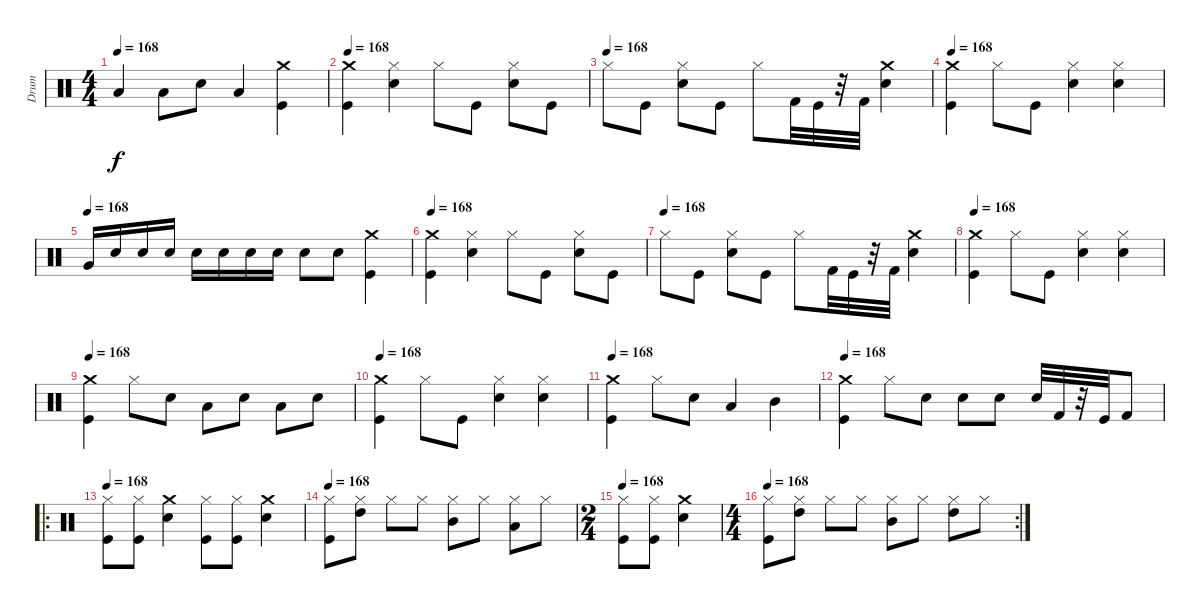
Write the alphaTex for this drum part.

\track ("Drum" "Drum") {instrument percussion}
\staff {score}
\articulation defaults
\ts (4 4)
\tempo 168
\clef neutral
\ks c "Low Tom (hit)".4{dy f} "Low Tom (hit)".8 "Snare (hit) 2".8 "Low Tom (hit)".4
("Crash medium (hit)" "Kick (hit)").4 |
\tempo 168
("Crash medium (hit)" "Kick (hit)").4 ("Hi-Hat (closed)" "Snare (hit) 2").4 "Hi-Hat (closed)".8 "Kick (hit)".8 ("Hi-Hat (closed)" "Snare (hit) 2").8 "Kick (hit)".8 |
\tempo (168)
"Hi-Hat (closed)".8 "Kick (hit)".8 ("Hi-Hat (closed)" "Snare (hit) 2").8 "Kick (hit)".8 "Hi-Hat (closed)".8 "Kick (hit) 2".32 "Kick (hit)".32 r.32 "Kick (hit) 2".32 ("Crash medium (hit)" "Snare (hit) 2").4 |
\tempo 168
("Crash medium (hit)" "Kick (hit)").4 "Hi-Hat (closed)".8 "Kick (hit)".8 ("Hi-Hat (closed)" "Snare (hit) 2").4 ("Hi-Hat (closed)" "Snare (hit) 2").4 |
\tempo (168)
"Very Low Tom (hit)".16 "Snare (hit) 2".16 "Snare (hit) 2".16 "Snare (hit) 2".16 "Snare (hit) 2".16 "Snare (hit) 2".16 "Snare (hit) 2".16 "Snare (hit) 2".16 "Snare (hit) 2".8 "Snare (hit) 2".8 ("Crash medium (hit)" "Kick (hit)").4 |
\tempo 168
("Crash medium (hit)" "Kick (hit)").4 ("Hi-Hat (closed)" "Snare (hit) 2").4 "Hi-Hat (closed)".8 "Kick (hit)".8 ("Hi-Hat (closed)" "Snare (hit) 2").8 "Kick (hit)".8 |
\tempo (168)
"Hi-Hat (closed)".8 "Kick (hit)".8 ("Hi-Hat (closed)" "Snare (hit) 2").8 "Kick (hit)".8 "Hi-Hat (closed)".8 "Kick (hit) 2".32 "Kick (hit)".32 r.32 "Kick (hit) 2".32 ("Crash medium (hit)" "Snare (hit) 2").4 |
\tempo 168
("Crash medium (hit)" "Kick (hit)").4 "Hi-Hat (closed)".8 "Kick (hit)".8 ("Hi-Hat (closed)" "Snare (hit) 2").4 ("Hi-Hat (closed)" "Snare (hit) 2").4 |
\tempo 168
("Crash medium (hit)" "Kick (hit)").4 "Hi-Hat (closed)".8 "Snare (hit) 2".8 "Low Tom (hit)".8 "Snare (hit) 2".8 "Low Tom (hit)".8 "Snare (hit) 2".8 |
\tempo 168
("Crash medium (hit)" "Kick (hit)").4 "Hi-Hat (closed)".8 "Kick (hit)".8 ("Hi-Hat (closed)" "Snare (hit) 2").4 ("Hi-Hat (closed)" "Snare (hit) 2").4 |
\tempo 168
("Crash medium (hit)" "Kick (hit)").4 "Hi-Hat (closed)".8 "Snare (hit) 2".8 "Low Tom (hit)".4 "Mid Tom (hit)".4 |
\tempo 168
("Crash medium (hit)" "Kick (hit)").4 "Hi-Hat (closed)".8 "Snare (hit) 2".8 "Snare (hit) 2".8 "Snare (hit) 2".8 "Snare (hit) 2".32 "Kick (hit) 2".32 r.32 "Kick (hit)".32 "Kick (hit) 2".8 |
\ro
\tempo 168
("Hi-Hat (closed)" "Kick (hit)").8 ("Hi-Hat (closed)" "Kick (hit)").8 ("Crash medium (hit)" "Snare (hit) 2").4 ("Hi-Hat (closed)" "Kick (hit)").8 ("Hi-Hat (closed)" "Kick (hit)").8 ("Crash medium (hit)" "Snare (hit) 2").4 |
\tempo 168
("Hi-Hat (closed)" "Kick (hit)").8 ("Hi-Hat (closed)" "High Tom (hit)").8 "Hi-Hat (closed)".8 "Hi-Hat (closed)".8 ("Hi-Hat (closed)" "Mid Tom (hit)").8 "Hi-Hat (closed)".8 ("Hi-Hat (closed)" "Low Tom (hit)").8 "Hi-Hat (closed)".8 |
\ts (2 4)
\tempo 168
("Hi-Hat (closed)" "Kick (hit)").8 ("Hi-Hat (closed)" "Kick (hit)").8 ("Crash medium (hit)" "Snare (hit) 2").4 |
\rc 2
\ts (4 4)
\tempo 168
("Hi-Hat (closed)" "Kick (hit)").8 ("Hi-Hat (closed)" "High Tom (hit)").8 "Hi-Hat (closed)".8 "Hi-Hat (closed)".8 ("Hi-Hat (closed)" "Mid Tom (hit)").8 "Hi-Hat (closed)".8 ("Hi-Hat (closed)" "High Tom (hit)").8 "Hi-Hat (closed)".8
